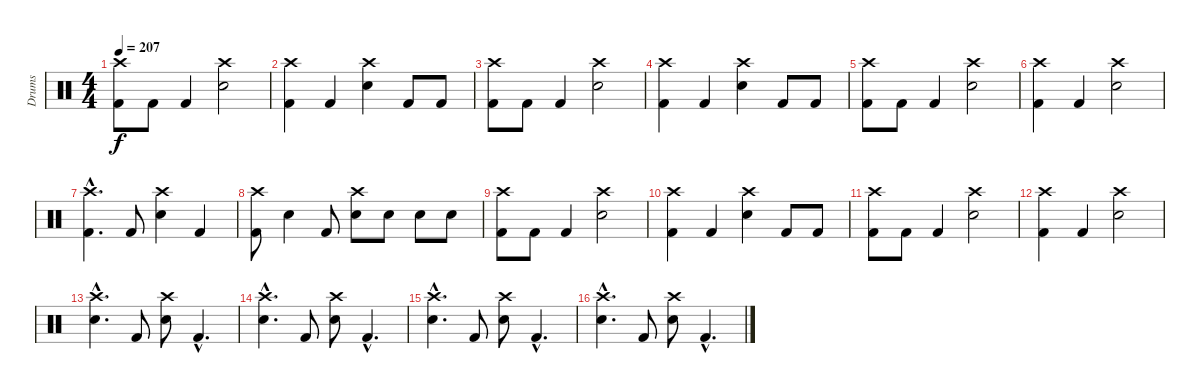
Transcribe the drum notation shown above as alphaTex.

\track ("Drums" "Drums") {instrument percussion}
\staff {score}
\articulation defaults
\ts (4 4)
\tempo 207
\clef neutral
\ks c
("Crash high (hit)" "Kick (hit) 2").8{dy f} "Kick (hit) 2".8 "Kick (hit) 2".4 ("Crash high (hit)" "Electric Snare (hit)").2 |
("Crash high (hit)" "Kick (hit) 2").4 "Kick (hit) 2".4 ("Crash high (hit)" "Electric Snare (hit)").4 "Kick (hit) 2".8 "Kick (hit) 2".8 |
("Crash high (hit)" "Kick (hit) 2").8 "Kick (hit) 2".8 "Kick (hit) 2".4 ("Crash high (hit)" "Electric Snare (hit)").2 |
("Crash high (hit)" "Kick (hit) 2").4 "Kick (hit) 2".4 ("Crash high (hit)" "Electric Snare (hit)").4 "Kick (hit) 2".8 "Kick (hit) 2".8 |
("Crash high (hit)" "Kick (hit) 2").8 "Kick (hit) 2".8 "Kick (hit) 2".4 ("Crash high (hit)" "Electric Snare (hit)").2 |
("Crash high (hit)" "Kick (hit) 2").4 "Kick (hit) 2".4 ("Crash high (hit)" "Electric Snare (hit)").2 |
("Crash high (hit)"{hac} "Kick (hit) 2"{hac}).4{d} "Kick (hit) 2".8 ("Crash high (hit)" "Electric Snare (hit)").4 "Kick (hit) 2".4 |
("Crash high (hit)" "Kick (hit) 2").8 "Electric Snare (hit)".4 "Kick (hit) 2".8 ("Crash high (hit)" "Electric Snare (hit)").8 "Electric Snare (hit)".8 "Electric Snare (hit)".8 "Electric Snare (hit)".8 |
("Crash high (hit)" "Kick (hit) 2").8 "Kick (hit) 2".8 "Kick (hit) 2".4 ("Crash high (hit)" "Electric Snare (hit)").2 |
("Crash high (hit)" "Kick (hit) 2").4 "Kick (hit) 2".4 ("Crash high (hit)" "Electric Snare (hit)").4 "Kick (hit) 2".8 "Kick (hit) 2".8 |
("Crash high (hit)" "Kick (hit) 2").8 "Kick (hit) 2".8 "Kick (hit) 2".4 ("Crash high (hit)" "Electric Snare (hit)").2 |
("Crash high (hit)" "Kick (hit) 2").4 "Kick (hit) 2".4 ("Crash high (hit)" "Electric Snare (hit)").2 |
("Crash high (hit)"{hac} "Electric Snare (hit)"{hac}).4{d} "Kick (hit) 2".8 ("Crash high (hit)" "Electric Snare (hit)").8 "Kick (hit) 2"{hac}.4{d} |
("Crash high (hit)"{hac} "Electric Snare (hit)"{hac}).4{d} "Kick (hit) 2".8 ("Crash high (hit)" "Electric Snare (hit)").8 "Kick (hit) 2"{hac}.4{d} |
("Crash high (hit)"{hac} "Electric Snare (hit)"{hac}).4{d} "Kick (hit) 2".8 ("Crash high (hit)" "Electric Snare (hit)").8 "Kick (hit) 2"{hac}.4{d} |
("Crash high (hit)"{hac} "Electric Snare (hit)"{hac}).4{d} "Kick (hit) 2".8 ("Crash high (hit)" "Electric Snare (hit)").8 "Kick (hit) 2"{hac}.4{d}
